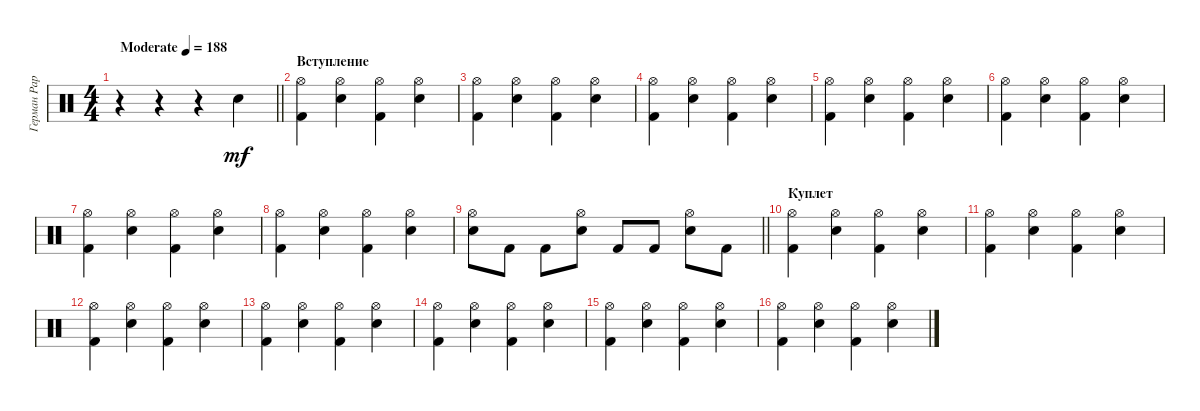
\track ("Герман Раребелл, ударные" "Герман Рар") {instrument percussion}
\staff {score}
\articulation defaults
\ts (4 4)
\tempo (188 "Moderate")
\clef neutral
\barLineRight lightlight
\ks c
r.4{dy mf} r.4 r.4 "Snare (hit) 2".4 |
\section ("" "Вступление")
("Hi-Hat (open)" "Kick (hit) 2").4 ("Hi-Hat (open)" "Snare (hit) 2").4 ("Hi-Hat (open)" "Kick (hit) 2").4 ("Hi-Hat (open)" "Snare (hit) 2").4 |
("Hi-Hat (open)" "Kick (hit) 2").4 ("Hi-Hat (open)" "Snare (hit) 2").4 ("Hi-Hat (open)" "Kick (hit) 2").4 ("Hi-Hat (open)" "Snare (hit) 2").4 |
("Hi-Hat (open)" "Kick (hit) 2").4 ("Hi-Hat (open)" "Snare (hit) 2").4 ("Hi-Hat (open)" "Kick (hit) 2").4 ("Hi-Hat (open)" "Snare (hit) 2").4 |
("Hi-Hat (open)" "Kick (hit) 2").4 ("Hi-Hat (open)" "Snare (hit) 2").4 ("Hi-Hat (open)" "Kick (hit) 2").4 ("Hi-Hat (open)" "Snare (hit) 2").4 |
("Hi-Hat (open)" "Kick (hit) 2").4 ("Hi-Hat (open)" "Snare (hit) 2").4 ("Hi-Hat (open)" "Kick (hit) 2").4 ("Hi-Hat (open)" "Snare (hit) 2").4 |
("Hi-Hat (open)" "Kick (hit) 2").4 ("Hi-Hat (open)" "Snare (hit) 2").4 ("Hi-Hat (open)" "Kick (hit) 2").4 ("Hi-Hat (open)" "Snare (hit) 2").4 |
("Hi-Hat (open)" "Kick (hit) 2").4 ("Hi-Hat (open)" "Snare (hit) 2").4 ("Hi-Hat (open)" "Kick (hit) 2").4 ("Hi-Hat (open)" "Snare (hit) 2").4 |
\barLineRight lightlight
("Hi-Hat (open)" "Snare (hit) 2").8 "Kick (hit) 2".8 "Kick (hit) 2".8 ("Hi-Hat (open)" "Snare (hit) 2").8 "Kick (hit) 2".8 "Kick (hit) 2".8 ("Hi-Hat (open)" "Snare (hit) 2").8 "Kick (hit) 2".8 |
\section ("" "Куплет")
("Hi-Hat (open)" "Kick (hit) 2").4 ("Hi-Hat (open)" "Snare (hit) 2").4 ("Hi-Hat (open)" "Kick (hit) 2").4 ("Hi-Hat (open)" "Snare (hit) 2").4 |
("Hi-Hat (open)" "Kick (hit) 2").4 ("Hi-Hat (open)" "Snare (hit) 2").4 ("Hi-Hat (open)" "Kick (hit) 2").4 ("Hi-Hat (open)" "Snare (hit) 2").4 |
("Hi-Hat (open)" "Kick (hit) 2").4 ("Hi-Hat (open)" "Snare (hit) 2").4 ("Hi-Hat (open)" "Kick (hit) 2").4 ("Hi-Hat (open)" "Snare (hit) 2").4 |
("Hi-Hat (open)" "Kick (hit) 2").4 ("Hi-Hat (open)" "Snare (hit) 2").4 ("Hi-Hat (open)" "Kick (hit) 2").4 ("Hi-Hat (open)" "Snare (hit) 2").4 |
("Hi-Hat (open)" "Kick (hit) 2").4 ("Hi-Hat (open)" "Snare (hit) 2").4 ("Hi-Hat (open)" "Kick (hit) 2").4 ("Hi-Hat (open)" "Snare (hit) 2").4 |
("Hi-Hat (open)" "Kick (hit) 2").4 ("Hi-Hat (open)" "Snare (hit) 2").4 ("Hi-Hat (open)" "Kick (hit) 2").4 ("Hi-Hat (open)" "Snare (hit) 2").4 |
("Hi-Hat (open)" "Kick (hit) 2").4 ("Hi-Hat (open)" "Snare (hit) 2").4 ("Hi-Hat (open)" "Kick (hit) 2").4 ("Hi-Hat (open)" "Snare (hit) 2").4
